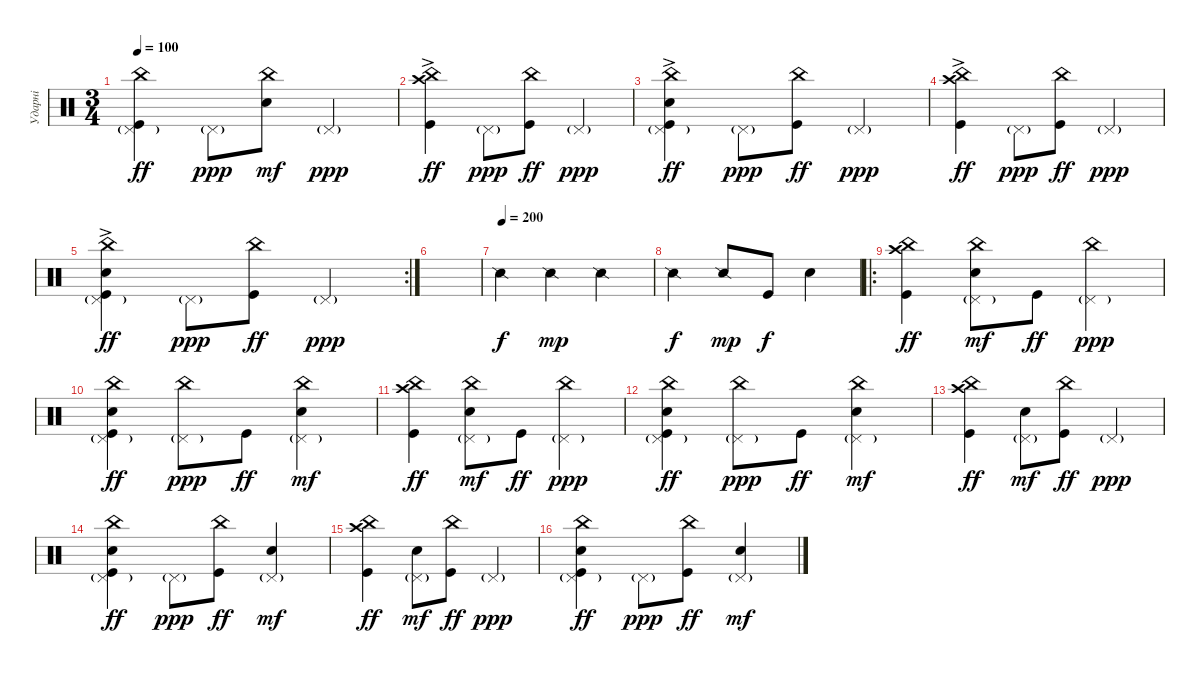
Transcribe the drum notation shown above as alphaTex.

\track ("Ударні" "Ударні") {instrument percussion}
\staff {score}
\articulation defaults
\ts (3 4)
\tempo 100
\clef neutral
\ks c
("China (hit)" "Pedal Hi-Hat (hit)"{g} "Kick (hit)").4{dy ff} "Pedal Hi-Hat (hit)"{g}.8{dy ppp} ("China (hit)" "Snare (hit) 2").8{dy mf} "Pedal Hi-Hat (hit)"{g}.4{dy ppp} |
("China (hit)"{ac} "Crash high (hit)" "Kick (hit)").4{dy ff} "Pedal Hi-Hat (hit)"{g}.8{dy ppp} ("China (hit)" "Kick (hit)").8{dy ff} "Pedal Hi-Hat (hit)"{g}.4{dy ppp} |
("China (hit)"{ac} "Pedal Hi-Hat (hit)"{g} "Snare (hit) 2" "Kick (hit)").4{dy ff} "Pedal Hi-Hat (hit)"{g}.8{dy ppp} ("China (hit)" "Kick (hit)").8{dy ff} "Pedal Hi-Hat (hit)"{g}.4{dy ppp} |
("China (hit)"{ac} "Crash high (hit)" "Kick (hit)").4{dy ff} "Pedal Hi-Hat (hit)"{g}.8{dy ppp} ("China (hit)" "Kick (hit)").8{dy ff} "Pedal Hi-Hat (hit)"{g}.4{dy ppp} |
\rc 2
("China (hit)"{ac} "Pedal Hi-Hat (hit)"{g} "Snare (hit) 2" "Kick (hit)").4{dy ff} "Pedal Hi-Hat (hit)"{g}.8{dy ppp} ("China (hit)" "Kick (hit)").8{dy ff} "Pedal Hi-Hat (hit)"{g}.4{dy ppp} |
|
\tempo (200)
"Snare (side stick) 2".4{dy f} "Snare (side stick) 2".4{dy mp} "Snare (side stick) 2".4 |
"Snare (side stick) 2".4{dy f} "Snare (side stick) 2".8{dy mp} "Kick (hit)".8{dy f} "Snare (hit) 2".4 |
\ro
("China (hit)" "Crash high (hit)" "Kick (hit)").4{dy ff} ("China (hit)" "Pedal Hi-Hat (hit)"{g} "Snare (hit) 2").8{dy mf} "Kick (hit)".8{dy ff} ("China (hit)" "Pedal Hi-Hat (hit)"{g}).4{dy ppp} |
("China (hit)" "Pedal Hi-Hat (hit)"{g} "Snare (hit) 2" "Kick (hit)").4{dy ff} ("China (hit)" "Pedal Hi-Hat (hit)"{g}).8{dy ppp} "Kick (hit)".8{dy ff} ("China (hit)" "Pedal Hi-Hat (hit)"{g} "Snare (hit) 2").4{dy mf} |
("China (hit)" "Crash high (hit)" "Kick (hit)").4{dy ff} ("China (hit)" "Pedal Hi-Hat (hit)"{g} "Snare (hit) 2").8{dy mf} "Kick (hit)".8{dy ff} ("China (hit)" "Pedal Hi-Hat (hit)"{g}).4{dy ppp} |
("China (hit)" "Pedal Hi-Hat (hit)"{g} "Snare (hit) 2" "Kick (hit)").4{dy ff} ("China (hit)" "Pedal Hi-Hat (hit)"{g}).8{dy ppp} "Kick (hit)".8{dy ff} ("China (hit)" "Pedal Hi-Hat (hit)"{g} "Snare (hit) 2").4{dy mf} |
("China (hit)" "Crash high (hit)" "Kick (hit)").4{dy ff} ("Pedal Hi-Hat (hit)"{g} "Snare (hit) 2").8{dy mf} ("China (hit)" "Kick (hit)").8{dy ff} "Pedal Hi-Hat (hit)"{g}.4{dy ppp} |
("China (hit)" "Pedal Hi-Hat (hit)"{g} "Snare (hit) 2" "Kick (hit)").4{dy ff} "Pedal Hi-Hat (hit)"{g}.8{dy ppp} ("China (hit)" "Kick (hit)").8{dy ff} ("Pedal Hi-Hat (hit)"{g} "Snare (hit) 2").4{dy mf} |
("China (hit)" "Crash high (hit)" "Kick (hit)").4{dy ff} ("Pedal Hi-Hat (hit)"{g} "Snare (hit) 2").8{dy mf} ("China (hit)" "Kick (hit)").8{dy ff} "Pedal Hi-Hat (hit)"{g}.4{dy ppp} |
("China (hit)" "Pedal Hi-Hat (hit)"{g} "Snare (hit) 2" "Kick (hit)").4{dy ff} "Pedal Hi-Hat (hit)"{g}.8{dy ppp} ("China (hit)" "Kick (hit)").8{dy ff} ("Pedal Hi-Hat (hit)"{g} "Snare (hit) 2").4{dy mf}
